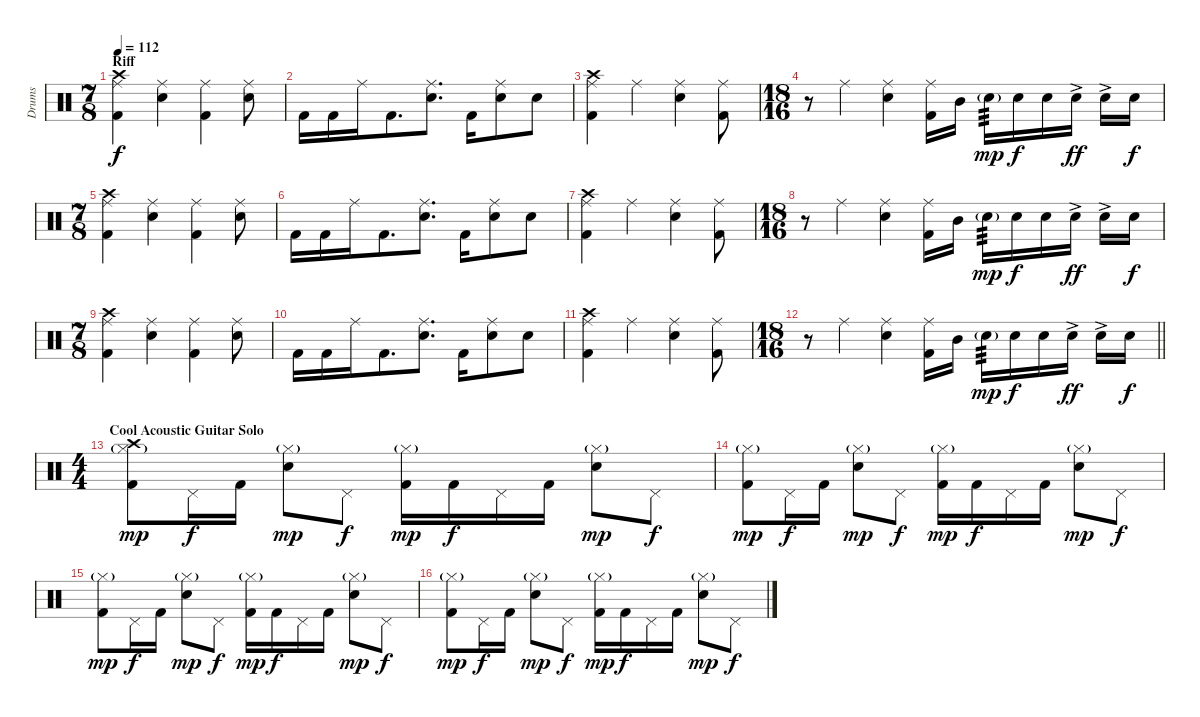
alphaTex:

\track ("Drums" "Drums") {instrument percussion}
\staff {score}
\articulation defaults
\ts (7 8)
\section ("" "Riff")
\tempo 112
\clef neutral
\ks c
("Ride (middle)" "Crash high (hit)" "Kick (hit) 2").4{dy f volume 10} ("Ride (middle)" "Electric Snare (hit)").4 ("Ride (middle)" "Kick (hit) 2").4 ("Ride (middle)" "Electric Snare (hit)").8 |
"Kick (hit) 2".16 "Kick (hit) 2".16 "Ride (middle)".16 "Kick (hit) 2".8{d} ("Ride (middle)" "Electric Snare (hit)").8{d} "Kick (hit) 2".16 ("Ride (middle)" "Electric Snare (hit)").8 "Electric Snare (hit)".8 |
("Ride (middle)" "Crash high (hit)" "Kick (hit) 2").4 "Ride (middle)".4 ("Ride (middle)" "Electric Snare (hit)").4 ("Ride (middle)" "Kick (hit) 2").8 |
\ts (18 16)
r.8 "Ride (middle)".4 ("Ride (middle)" "Electric Snare (hit)").4 ("Ride (middle)" "Kick (hit) 2").16 "Mid Tom (hit)".16 "Electric Snare (hit)"{g}.16{tp 3 dy mp} "Electric Snare (hit)".16{dy f} "Electric Snare (hit)".16 "Electric Snare (hit)"{ac}.16{dy ff} "Electric Snare (hit)"{ac}.16 "Electric Snare (hit)".16{dy f} |
\ts (7 8)
("Ride (middle)" "Crash high (hit)" "Kick (hit) 2").4 ("Ride (middle)" "Electric Snare (hit)").4 ("Ride (middle)" "Kick (hit) 2").4 ("Ride (middle)" "Electric Snare (hit)").8 |
"Kick (hit) 2".16 "Kick (hit) 2".16 "Ride (middle)".16 "Kick (hit) 2".8{d} ("Ride (middle)" "Electric Snare (hit)").8{d} "Kick (hit) 2".16 ("Ride (middle)" "Electric Snare (hit)").8 "Electric Snare (hit)".8 |
("Ride (middle)" "Crash high (hit)" "Kick (hit) 2").4 "Ride (middle)".4 ("Ride (middle)" "Electric Snare (hit)").4 ("Ride (middle)" "Kick (hit) 2").8 |
\ts (18 16)
r.8 "Ride (middle)".4 ("Ride (middle)" "Electric Snare (hit)").4 ("Ride (middle)" "Kick (hit) 2").16 "Mid Tom (hit)".16 "Electric Snare (hit)"{g}.16{tp 3 dy mp} "Electric Snare (hit)".16{dy f} "Electric Snare (hit)".16 "Electric Snare (hit)"{ac}.16{dy ff} "Electric Snare (hit)"{ac}.16 "Electric Snare (hit)".16{dy f} |
\ts (7 8)
("Ride (middle)" "Crash high (hit)" "Kick (hit) 2").4 ("Ride (middle)" "Electric Snare (hit)").4 ("Ride (middle)" "Kick (hit) 2").4 ("Ride (middle)" "Electric Snare (hit)").8 |
"Kick (hit) 2".16 "Kick (hit) 2".16 "Ride (middle)".16 "Kick (hit) 2".8{d} ("Ride (middle)" "Electric Snare (hit)").8{d} "Kick (hit) 2".16 ("Ride (middle)" "Electric Snare (hit)").8 "Electric Snare (hit)".8 |
("Ride (middle)" "Crash high (hit)" "Kick (hit) 2").4 "Ride (middle)".4 ("Ride (middle)" "Electric Snare (hit)").4 ("Ride (middle)" "Kick (hit) 2").8 |
\ts (18 16)
\barLineRight lightlight
r.8 "Ride (middle)".4 ("Ride (middle)" "Electric Snare (hit)").4 ("Ride (middle)" "Kick (hit) 2").16 "Mid Tom (hit)".16 "Electric Snare (hit)"{g}.16{tp 3 dy mp} "Electric Snare (hit)".16{dy f} "Electric Snare (hit)".16 "Electric Snare (hit)"{ac}.16{dy ff} "Electric Snare (hit)"{ac}.16 "Electric Snare (hit)".16{dy f} |
\ts (4 4)
\section ("" "Cool Acoustic Guitar Solo")
("Hi-Hat (closed)"{g} "Crash high (hit)" "Kick (hit) 2").8{dy mp} "Pedal Hi-Hat (hit)".16{dy f} "Kick (hit) 2".16 ("Hi-Hat (closed)"{g} "Snare (hit) 2").8{dy mp} "Pedal Hi-Hat (hit)".8{dy f} ("Hi-Hat (closed)"{g} "Kick (hit) 2").16{dy mp} "Kick (hit) 2".16{dy f} "Pedal Hi-Hat (hit)".16 "Kick (hit) 2".16 ("Hi-Hat (closed)"{g} "Snare (hit) 2").8{dy mp} "Pedal Hi-Hat (hit)".8{dy f} |
("Hi-Hat (closed)"{g} "Kick (hit) 2").8{dy mp} "Pedal Hi-Hat (hit)".16{dy f} "Kick (hit) 2".16 ("Hi-Hat (closed)"{g} "Snare (hit) 2").8{dy mp} "Pedal Hi-Hat (hit)".8{dy f} ("Hi-Hat (closed)"{g} "Kick (hit) 2").16{dy mp} "Kick (hit) 2".16{dy f} "Pedal Hi-Hat (hit)".16 "Kick (hit) 2".16 ("Hi-Hat (closed)"{g} "Snare (hit) 2").8{dy mp} "Pedal Hi-Hat (hit)".8{dy f} |
("Hi-Hat (closed)"{g} "Kick (hit) 2").8{dy mp} "Pedal Hi-Hat (hit)".16{dy f} "Kick (hit) 2".16 ("Hi-Hat (closed)"{g} "Snare (hit) 2").8{dy mp} "Pedal Hi-Hat (hit)".8{dy f} ("Hi-Hat (closed)"{g} "Kick (hit) 2").16{dy mp} "Kick (hit) 2".16{dy f} "Pedal Hi-Hat (hit)".16 "Kick (hit) 2".16 ("Hi-Hat (closed)"{g} "Snare (hit) 2").8{dy mp} "Pedal Hi-Hat (hit)".8{dy f} |
("Hi-Hat (closed)"{g} "Kick (hit) 2").8{dy mp} "Pedal Hi-Hat (hit)".16{dy f} "Kick (hit) 2".16 ("Hi-Hat (closed)"{g} "Snare (hit) 2").8{dy mp} "Pedal Hi-Hat (hit)".8{dy f} ("Hi-Hat (closed)"{g} "Kick (hit) 2").16{dy mp} "Kick (hit) 2".16{dy f} "Pedal Hi-Hat (hit)".16 "Kick (hit) 2".16 ("Hi-Hat (closed)"{g} "Snare (hit) 2").8{dy mp} "Pedal Hi-Hat (hit)".8{dy f}
